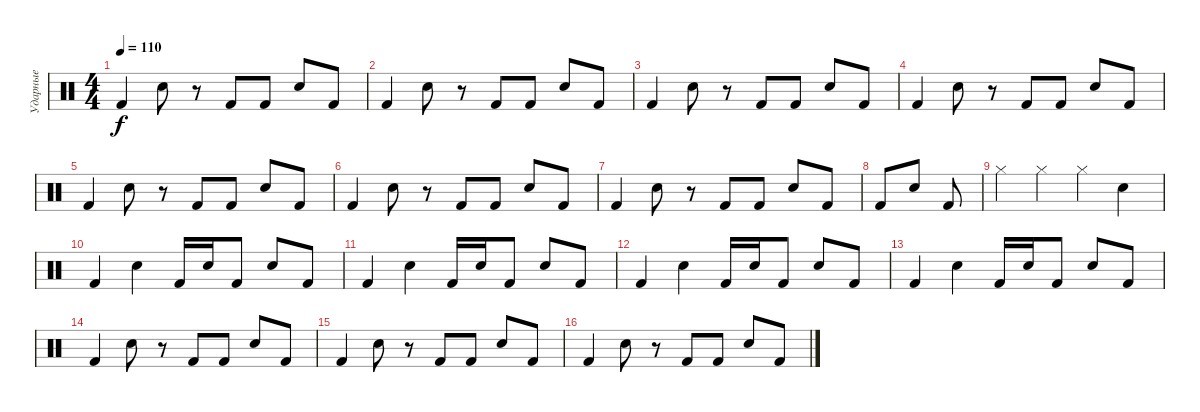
\track ("Ударные" "Ударные") {instrument percussion}
\staff {score}
\articulation defaults
\ts (4 4)
\tempo 110
\clef neutral
\ks c "Kick (hit) 2".4{dy f} "Electric Snare (hit)".8
r.8 "Kick (hit) 2".8 "Kick (hit) 2".8 "Electric Snare (hit)".8 "Kick (hit) 2".8 |
"Kick (hit) 2".4 "Electric Snare (hit)".8 r.8 "Kick (hit) 2".8 "Kick (hit) 2".8 "Electric Snare (hit)".8 "Kick (hit) 2".8 |
"Kick (hit) 2".4 "Electric Snare (hit)".8 r.8 "Kick (hit) 2".8 "Kick (hit) 2".8 "Electric Snare (hit)".8 "Kick (hit) 2".8 |
"Kick (hit) 2".4 "Electric Snare (hit)".8 r.8 "Kick (hit) 2".8 "Kick (hit) 2".8 "Electric Snare (hit)".8 "Kick (hit) 2".8 |
"Kick (hit) 2".4 "Electric Snare (hit)".8 r.8 "Kick (hit) 2".8 "Kick (hit) 2".8 "Electric Snare (hit)".8 "Kick (hit) 2".8 |
"Kick (hit) 2".4 "Electric Snare (hit)".8 r.8 "Kick (hit) 2".8 "Kick (hit) 2".8 "Electric Snare (hit)".8 "Kick (hit) 2".8 |
"Kick (hit) 2".4 "Electric Snare (hit)".8 r.8 "Kick (hit) 2".8 "Kick (hit) 2".8 "Electric Snare (hit)".8 "Kick (hit) 2".8 |
"Kick (hit) 2".8 "Electric Snare (hit)".8 "Kick (hit) 2".8 |
"Hi-Hat (closed)".4 "Hi-Hat (closed)".4 "Hi-Hat (closed)".4 "Electric Snare (hit)".4 |
"Kick (hit) 2".4 "Electric Snare (hit)".4 "Kick (hit) 2".16 "Electric Snare (hit)".16 "Kick (hit) 2".8 "Electric Snare (hit)".8 "Kick (hit) 2".8 |
"Kick (hit) 2".4 "Electric Snare (hit)".4 "Kick (hit) 2".16 "Electric Snare (hit)".16 "Kick (hit) 2".8 "Electric Snare (hit)".8 "Kick (hit) 2".8 |
"Kick (hit) 2".4 "Electric Snare (hit)".4 "Kick (hit) 2".16 "Electric Snare (hit)".16 "Kick (hit) 2".8 "Electric Snare (hit)".8 "Kick (hit) 2".8 |
"Kick (hit) 2".4 "Electric Snare (hit)".4 "Kick (hit) 2".16 "Electric Snare (hit)".16 "Kick (hit) 2".8 "Electric Snare (hit)".8 "Kick (hit) 2".8 |
"Kick (hit) 2".4 "Electric Snare (hit)".8 r.8 "Kick (hit) 2".8 "Kick (hit) 2".8 "Electric Snare (hit)".8 "Kick (hit) 2".8 |
"Kick (hit) 2".4 "Electric Snare (hit)".8 r.8 "Kick (hit) 2".8 "Kick (hit) 2".8 "Electric Snare (hit)".8 "Kick (hit) 2".8 |
"Kick (hit) 2".4 "Electric Snare (hit)".8 r.8 "Kick (hit) 2".8 "Kick (hit) 2".8 "Electric Snare (hit)".8 "Kick (hit) 2".8
